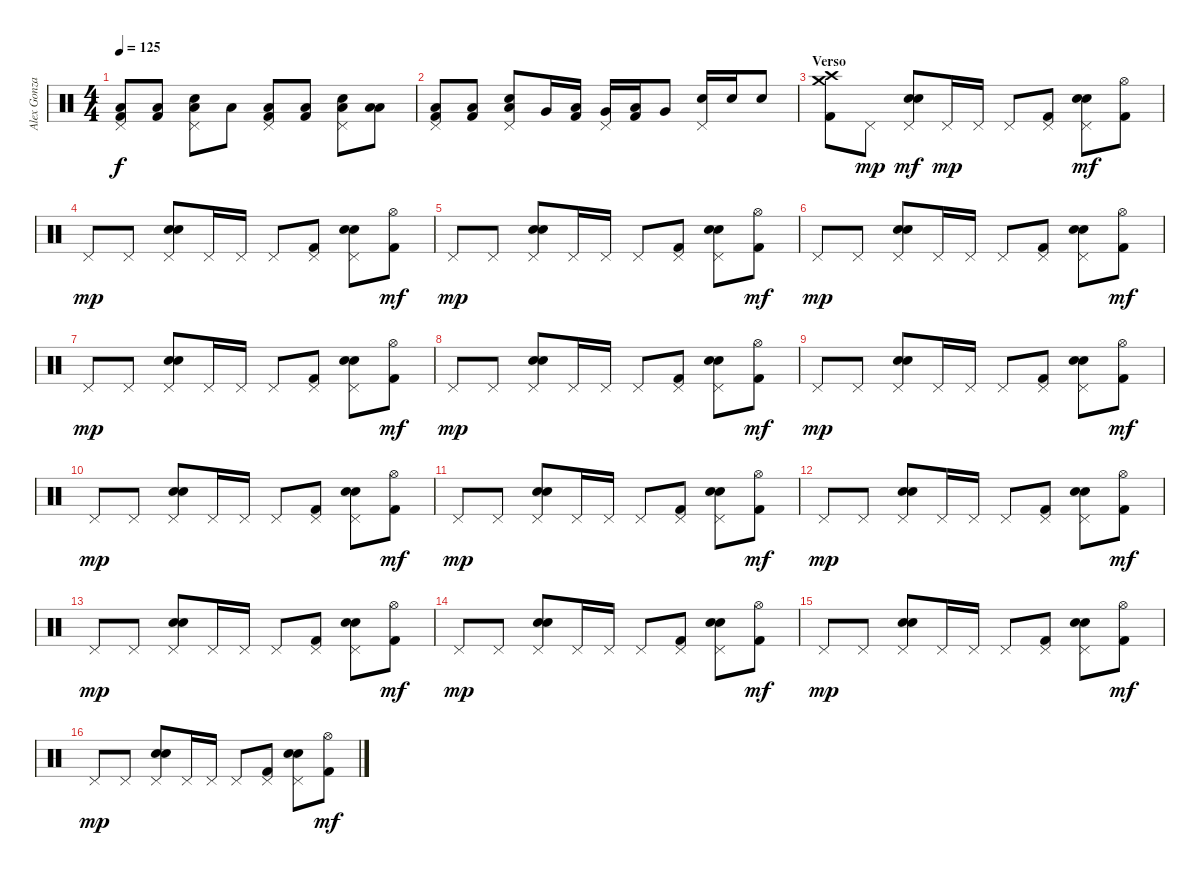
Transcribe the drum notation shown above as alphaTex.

\track ("Alex Gonzales" "Alex Gonza") {instrument percussion}
\staff {score}
\articulation defaults
\ts (4 4)
\tempo 125
\clef neutral
\ks c
("Low Floor Tom (hit)" "Kick (hit) 2" "Pedal Hi-Hat (hit)").8{dy f} ("Low Floor Tom (hit)" "Kick (hit) 2").8 ("Electric Snare (hit)" "Low Floor Tom (hit)" "Pedal Hi-Hat (hit)").8 "Low Floor Tom (hit)".8 ("Low Floor Tom (hit)" "Kick (hit) 2" "Pedal Hi-Hat (hit)").8 ("Low Floor Tom (hit)" "Kick (hit) 2").8 ("Electric Snare (hit)" "Low Floor Tom (hit)" "Pedal Hi-Hat (hit)").8 ("Low Tom (hit)" "Low Floor Tom (hit)").8 |
("Low Floor Tom (hit)" "Kick (hit) 2" "Pedal Hi-Hat (hit)").8 ("Low Floor Tom (hit)" "Kick (hit) 2").8 ("Electric Snare (hit)" "Low Floor Tom (hit)" "Pedal Hi-Hat (hit)").8 "Very Low Tom (hit)".16 ("Low Floor Tom (hit)" "Kick (hit) 2").16 ("Very Low Tom (hit)" "Pedal Hi-Hat (hit)").16 ("Low Floor Tom (hit)" "Kick (hit) 2").16 "Very Low Tom (hit)".8 ("Electric Snare (hit)" "Pedal Hi-Hat (hit)").16 "Electric Snare (hit)".16 "Electric Snare (hit)".8 |
\section ("" "Verso")
("Crash medium (hit)" "Crash high (hit)" "Kick (hit) 2").8 "Pedal Hi-Hat (hit)".8{dy mp} ("Pedal Hi-Hat (hit)" "Electric Snare (hit)" "Hand Clap (hit)").8{dy mf} "Pedal Hi-Hat (hit)".16{dy mp} "Pedal Hi-Hat (hit)".16 "Pedal Hi-Hat (hit)".8 ("Pedal Hi-Hat (hit)" "Kick (hit) 2").8 ("Pedal Hi-Hat (hit)" "Electric Snare (hit)" "Hand Clap (hit)").8{dy mf} ("Hi-Hat (open)" "Kick (hit) 2").8 |
"Pedal Hi-Hat (hit)".8{dy mp} "Pedal Hi-Hat (hit)".8 ("Pedal Hi-Hat (hit)" "Hand Clap (hit)" "Electric Snare (hit)").8 "Pedal Hi-Hat (hit)".16 "Pedal Hi-Hat (hit)".16 "Pedal Hi-Hat (hit)".8 ("Pedal Hi-Hat (hit)" "Kick (hit) 2").8 ("Pedal Hi-Hat (hit)" "Hand Clap (hit)" "Electric Snare (hit)").8 ("Hi-Hat (open)" "Kick (hit) 2").8{dy mf} |
"Pedal Hi-Hat (hit)".8{dy mp} "Pedal Hi-Hat (hit)".8 ("Pedal Hi-Hat (hit)" "Hand Clap (hit)" "Electric Snare (hit)").8 "Pedal Hi-Hat (hit)".16 "Pedal Hi-Hat (hit)".16 "Pedal Hi-Hat (hit)".8 ("Pedal Hi-Hat (hit)" "Kick (hit) 2").8 ("Pedal Hi-Hat (hit)" "Hand Clap (hit)" "Electric Snare (hit)").8 ("Hi-Hat (open)" "Kick (hit) 2").8{dy mf} |
"Pedal Hi-Hat (hit)".8{dy mp} "Pedal Hi-Hat (hit)".8 ("Pedal Hi-Hat (hit)" "Hand Clap (hit)" "Electric Snare (hit)").8 "Pedal Hi-Hat (hit)".16 "Pedal Hi-Hat (hit)".16 "Pedal Hi-Hat (hit)".8 ("Pedal Hi-Hat (hit)" "Kick (hit) 2").8 ("Pedal Hi-Hat (hit)" "Hand Clap (hit)" "Electric Snare (hit)").8 ("Hi-Hat (open)" "Kick (hit) 2").8{dy mf} |
"Pedal Hi-Hat (hit)".8{dy mp} "Pedal Hi-Hat (hit)".8 ("Pedal Hi-Hat (hit)" "Hand Clap (hit)" "Electric Snare (hit)").8 "Pedal Hi-Hat (hit)".16 "Pedal Hi-Hat (hit)".16 "Pedal Hi-Hat (hit)".8 ("Pedal Hi-Hat (hit)" "Kick (hit) 2").8 ("Pedal Hi-Hat (hit)" "Hand Clap (hit)" "Electric Snare (hit)").8 ("Hi-Hat (open)" "Kick (hit) 2").8{dy mf} |
"Pedal Hi-Hat (hit)".8{dy mp} "Pedal Hi-Hat (hit)".8 ("Pedal Hi-Hat (hit)" "Hand Clap (hit)" "Electric Snare (hit)").8 "Pedal Hi-Hat (hit)".16 "Pedal Hi-Hat (hit)".16 "Pedal Hi-Hat (hit)".8 ("Pedal Hi-Hat (hit)" "Kick (hit) 2").8 ("Pedal Hi-Hat (hit)" "Hand Clap (hit)" "Electric Snare (hit)").8 ("Hi-Hat (open)" "Kick (hit) 2").8{dy mf} |
"Pedal Hi-Hat (hit)".8{dy mp} "Pedal Hi-Hat (hit)".8 ("Pedal Hi-Hat (hit)" "Hand Clap (hit)" "Electric Snare (hit)").8 "Pedal Hi-Hat (hit)".16 "Pedal Hi-Hat (hit)".16 "Pedal Hi-Hat (hit)".8 ("Pedal Hi-Hat (hit)" "Kick (hit) 2").8 ("Pedal Hi-Hat (hit)" "Hand Clap (hit)" "Electric Snare (hit)").8 ("Hi-Hat (open)" "Kick (hit) 2").8{dy mf} |
"Pedal Hi-Hat (hit)".8{dy mp} "Pedal Hi-Hat (hit)".8 ("Pedal Hi-Hat (hit)" "Hand Clap (hit)" "Electric Snare (hit)").8 "Pedal Hi-Hat (hit)".16 "Pedal Hi-Hat (hit)".16 "Pedal Hi-Hat (hit)".8 ("Pedal Hi-Hat (hit)" "Kick (hit) 2").8 ("Pedal Hi-Hat (hit)" "Hand Clap (hit)" "Electric Snare (hit)").8 ("Hi-Hat (open)" "Kick (hit) 2").8{dy mf} |
"Pedal Hi-Hat (hit)".8{dy mp} "Pedal Hi-Hat (hit)".8 ("Pedal Hi-Hat (hit)" "Hand Clap (hit)" "Electric Snare (hit)").8 "Pedal Hi-Hat (hit)".16 "Pedal Hi-Hat (hit)".16 "Pedal Hi-Hat (hit)".8 ("Pedal Hi-Hat (hit)" "Kick (hit) 2").8 ("Pedal Hi-Hat (hit)" "Hand Clap (hit)" "Electric Snare (hit)").8 ("Hi-Hat (open)" "Kick (hit) 2").8{dy mf} |
"Pedal Hi-Hat (hit)".8{dy mp} "Pedal Hi-Hat (hit)".8 ("Pedal Hi-Hat (hit)" "Hand Clap (hit)" "Electric Snare (hit)").8 "Pedal Hi-Hat (hit)".16 "Pedal Hi-Hat (hit)".16 "Pedal Hi-Hat (hit)".8 ("Pedal Hi-Hat (hit)" "Kick (hit) 2").8 ("Pedal Hi-Hat (hit)" "Hand Clap (hit)" "Electric Snare (hit)").8 ("Hi-Hat (open)" "Kick (hit) 2").8{dy mf} |
"Pedal Hi-Hat (hit)".8{dy mp} "Pedal Hi-Hat (hit)".8 ("Pedal Hi-Hat (hit)" "Hand Clap (hit)" "Electric Snare (hit)").8 "Pedal Hi-Hat (hit)".16 "Pedal Hi-Hat (hit)".16 "Pedal Hi-Hat (hit)".8 ("Pedal Hi-Hat (hit)" "Kick (hit) 2").8 ("Pedal Hi-Hat (hit)" "Hand Clap (hit)" "Electric Snare (hit)").8 ("Hi-Hat (open)" "Kick (hit) 2").8{dy mf} |
"Pedal Hi-Hat (hit)".8{dy mp} "Pedal Hi-Hat (hit)".8 ("Pedal Hi-Hat (hit)" "Hand Clap (hit)" "Electric Snare (hit)").8 "Pedal Hi-Hat (hit)".16 "Pedal Hi-Hat (hit)".16 "Pedal Hi-Hat (hit)".8 ("Pedal Hi-Hat (hit)" "Kick (hit) 2").8 ("Pedal Hi-Hat (hit)" "Hand Clap (hit)" "Electric Snare (hit)").8 ("Hi-Hat (open)" "Kick (hit) 2").8{dy mf} |
"Pedal Hi-Hat (hit)".8{dy mp} "Pedal Hi-Hat (hit)".8 ("Pedal Hi-Hat (hit)" "Hand Clap (hit)" "Electric Snare (hit)").8 "Pedal Hi-Hat (hit)".16 "Pedal Hi-Hat (hit)".16 "Pedal Hi-Hat (hit)".8 ("Pedal Hi-Hat (hit)" "Kick (hit) 2").8 ("Pedal Hi-Hat (hit)" "Hand Clap (hit)" "Electric Snare (hit)").8 ("Hi-Hat (open)" "Kick (hit) 2").8{dy mf} |
"Pedal Hi-Hat (hit)".8{dy mp} "Pedal Hi-Hat (hit)".8 ("Pedal Hi-Hat (hit)" "Hand Clap (hit)" "Electric Snare (hit)").8 "Pedal Hi-Hat (hit)".16 "Pedal Hi-Hat (hit)".16 "Pedal Hi-Hat (hit)".8 ("Pedal Hi-Hat (hit)" "Kick (hit) 2").8 ("Pedal Hi-Hat (hit)" "Hand Clap (hit)" "Electric Snare (hit)").8 ("Hi-Hat (open)" "Kick (hit) 2").8{dy mf}
